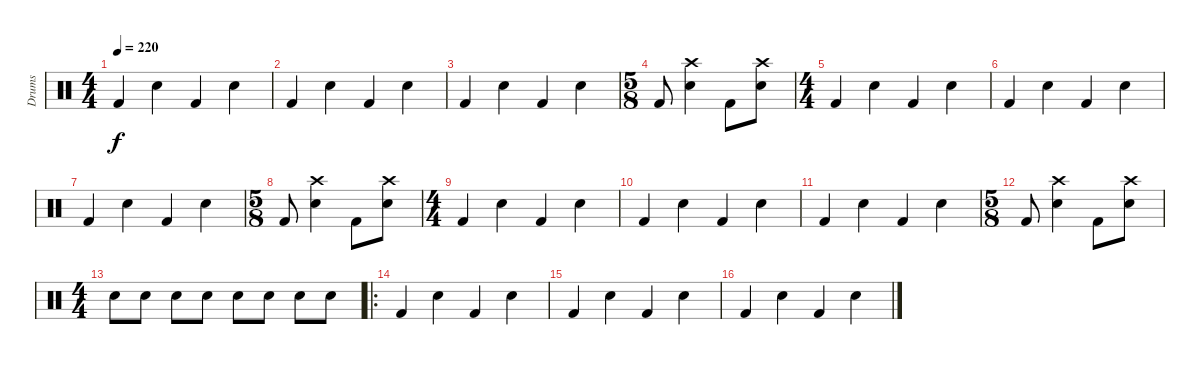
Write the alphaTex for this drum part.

\track ("Drums" "Drums") {instrument percussion}
\staff {score}
\articulation defaults
\ts (4 4)
\tempo 220
\clef neutral
\ks c "Kick (hit) 2".4{dy f} "Electric Snare (hit)".4 "Kick (hit) 2".4 "Electric Snare (hit)".4
|
"Kick (hit) 2".4 "Electric Snare (hit)".4 "Kick (hit) 2".4 "Electric Snare (hit)".4 |
"Kick (hit) 2".4 "Electric Snare (hit)".4 "Kick (hit) 2".4 "Electric Snare (hit)".4 |
\ts (5 8)
"Kick (hit) 2".8 ("Electric Snare (hit)" "Crash high (hit)").4 "Kick (hit) 2".8 ("Crash high (hit)" "Electric Snare (hit)").8 |
\ts (4 4)
"Kick (hit) 2".4 "Electric Snare (hit)".4 "Kick (hit) 2".4 "Electric Snare (hit)".4 |
"Kick (hit) 2".4 "Electric Snare (hit)".4 "Kick (hit) 2".4 "Electric Snare (hit)".4 |
"Kick (hit) 2".4 "Electric Snare (hit)".4 "Kick (hit) 2".4 "Electric Snare (hit)".4 |
\ts (5 8)
"Kick (hit) 2".8 ("Electric Snare (hit)" "Crash high (hit)").4 "Kick (hit) 2".8 ("Crash high (hit)" "Electric Snare (hit)").8 |
\ts (4 4)
"Kick (hit) 2".4 "Electric Snare (hit)".4 "Kick (hit) 2".4 "Electric Snare (hit)".4 |
"Kick (hit) 2".4 "Electric Snare (hit)".4 "Kick (hit) 2".4 "Electric Snare (hit)".4 |
"Kick (hit) 2".4 "Electric Snare (hit)".4 "Kick (hit) 2".4 "Electric Snare (hit)".4 |
\ts (5 8)
"Kick (hit) 2".8 ("Electric Snare (hit)" "Crash high (hit)").4 "Kick (hit) 2".8 ("Crash high (hit)" "Electric Snare (hit)").8 |
\ts (4 4)
"Electric Snare (hit)".8 "Electric Snare (hit)".8 "Electric Snare (hit)".8 "Electric Snare (hit)".8 "Electric Snare (hit)".8 "Electric Snare (hit)".8 "Electric Snare (hit)".8 "Electric Snare (hit)".8 |
\ro "Kick (hit) 2".4 "Electric Snare (hit)".4 "Kick (hit) 2".4 "Electric Snare (hit)".4
|
"Kick (hit) 2".4 "Electric Snare (hit)".4 "Kick (hit) 2".4 "Electric Snare (hit)".4 |
"Kick (hit) 2".4 "Electric Snare (hit)".4 "Kick (hit) 2".4 "Electric Snare (hit)".4
